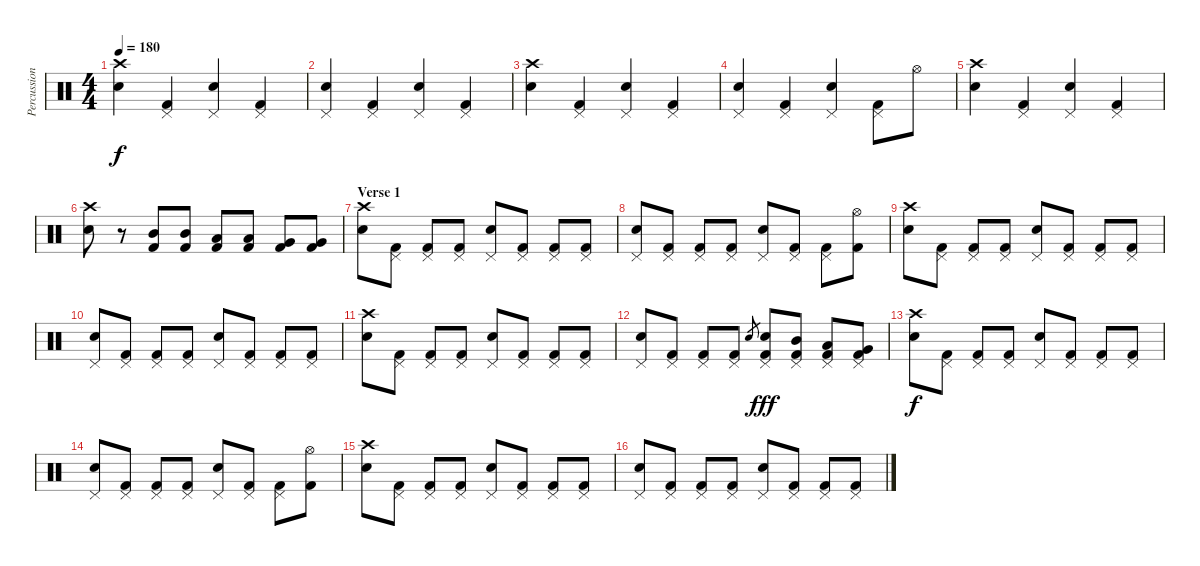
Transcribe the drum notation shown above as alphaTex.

\track ("Percussion" "Percussion") {instrument percussion}
\staff {score}
\articulation defaults
\ts (4 4)
\tempo 180
\clef neutral
\ks c
("Crash high (hit)" "Electric Snare (hit)").4{dy f} ("Pedal Hi-Hat (hit)" "Kick (hit) 2").4 ("Pedal Hi-Hat (hit)" "Electric Snare (hit)").4 ("Pedal Hi-Hat (hit)" "Kick (hit) 2").4 |
("Pedal Hi-Hat (hit)" "Electric Snare (hit)").4 ("Pedal Hi-Hat (hit)" "Kick (hit) 2").4 ("Pedal Hi-Hat (hit)" "Electric Snare (hit)").4 ("Pedal Hi-Hat (hit)" "Kick (hit) 2").4 |
("Crash high (hit)" "Electric Snare (hit)").4 ("Pedal Hi-Hat (hit)" "Kick (hit) 2").4 ("Pedal Hi-Hat (hit)" "Electric Snare (hit)").4 ("Pedal Hi-Hat (hit)" "Kick (hit) 2").4 |
("Pedal Hi-Hat (hit)" "Electric Snare (hit)").4 ("Pedal Hi-Hat (hit)" "Kick (hit) 2").4 ("Pedal Hi-Hat (hit)" "Electric Snare (hit)").4 ("Pedal Hi-Hat (hit)" "Kick (hit) 2").8 "Hi-Hat (open)".8 |
("Crash high (hit)" "Electric Snare (hit)").4 ("Pedal Hi-Hat (hit)" "Kick (hit) 2").4 ("Pedal Hi-Hat (hit)" "Electric Snare (hit)").4 ("Pedal Hi-Hat (hit)" "Kick (hit) 2").4 |
("Crash high (hit)" "Electric Snare (hit)").8 r.8 ("Mid Tom (hit)" "Kick (hit) 2").8 ("Mid Tom (hit)" "Kick (hit) 2").8 ("Low Tom (hit)" "Kick (hit) 2").8 ("Low Tom (hit)" "Kick (hit) 2").8 ("Very Low Tom (hit)" "Kick (hit) 2").8 ("Very Low Tom (hit)" "Kick (hit) 2").8 |
\section ("" "Verse 1")
("Crash high (hit)" "Electric Snare (hit)").8 ("Pedal Hi-Hat (hit)" "Kick (hit) 2").8 ("Pedal Hi-Hat (hit)" "Kick (hit) 2").8 ("Pedal Hi-Hat (hit)" "Kick (hit) 2").8 ("Pedal Hi-Hat (hit)" "Electric Snare (hit)").8 ("Pedal Hi-Hat (hit)" "Kick (hit) 2").8 ("Pedal Hi-Hat (hit)" "Kick (hit) 2").8 ("Pedal Hi-Hat (hit)" "Kick (hit) 2").8 |
("Pedal Hi-Hat (hit)" "Electric Snare (hit)").8 ("Pedal Hi-Hat (hit)" "Kick (hit) 2").8 ("Pedal Hi-Hat (hit)" "Kick (hit) 2").8 ("Pedal Hi-Hat (hit)" "Kick (hit) 2").8 ("Pedal Hi-Hat (hit)" "Electric Snare (hit)").8 ("Pedal Hi-Hat (hit)" "Kick (hit) 2").8 ("Pedal Hi-Hat (hit)" "Kick (hit) 2").8 ("Hi-Hat (open)" "Kick (hit) 2").8 |
("Crash high (hit)" "Electric Snare (hit)").8 ("Pedal Hi-Hat (hit)" "Kick (hit) 2").8 ("Pedal Hi-Hat (hit)" "Kick (hit) 2").8 ("Pedal Hi-Hat (hit)" "Kick (hit) 2").8 ("Pedal Hi-Hat (hit)" "Electric Snare (hit)").8 ("Pedal Hi-Hat (hit)" "Kick (hit) 2").8 ("Pedal Hi-Hat (hit)" "Kick (hit) 2").8 ("Pedal Hi-Hat (hit)" "Kick (hit) 2").8 |
("Pedal Hi-Hat (hit)" "Electric Snare (hit)").8 ("Pedal Hi-Hat (hit)" "Kick (hit) 2").8 ("Pedal Hi-Hat (hit)" "Kick (hit) 2").8 ("Pedal Hi-Hat (hit)" "Kick (hit) 2").8 ("Pedal Hi-Hat (hit)" "Electric Snare (hit)").8 ("Pedal Hi-Hat (hit)" "Kick (hit) 2").8 ("Pedal Hi-Hat (hit)" "Kick (hit) 2").8 ("Pedal Hi-Hat (hit)" "Kick (hit) 2").8 |
("Crash high (hit)" "Electric Snare (hit)").8 ("Pedal Hi-Hat (hit)" "Kick (hit) 2").8 ("Pedal Hi-Hat (hit)" "Kick (hit) 2").8 ("Pedal Hi-Hat (hit)" "Kick (hit) 2").8 ("Pedal Hi-Hat (hit)" "Electric Snare (hit)").8 ("Pedal Hi-Hat (hit)" "Kick (hit) 2").8 ("Pedal Hi-Hat (hit)" "Kick (hit) 2").8 ("Pedal Hi-Hat (hit)" "Kick (hit) 2").8 |
("Pedal Hi-Hat (hit)" "Electric Snare (hit)").8 ("Pedal Hi-Hat (hit)" "Kick (hit) 2").8 ("Pedal Hi-Hat (hit)" "Kick (hit) 2").8 ("Pedal Hi-Hat (hit)" "Kick (hit) 2").8 "Electric Snare (hit)".8{gr} ("Pedal Hi-Hat (hit)" "Electric Snare (hit)" "Kick (hit) 2").8{dy fff} ("Pedal Hi-Hat (hit)" "Mid Tom (hit)" "Kick (hit) 2").8 ("Pedal Hi-Hat (hit)" "Low Tom (hit)" "Kick (hit) 2").8 ("Pedal Hi-Hat (hit)" "Very Low Tom (hit)" "Kick (hit) 2").8 |
("Crash high (hit)" "Electric Snare (hit)").8{dy f} ("Pedal Hi-Hat (hit)" "Kick (hit) 2").8 ("Pedal Hi-Hat (hit)" "Kick (hit) 2").8 ("Pedal Hi-Hat (hit)" "Kick (hit) 2").8 ("Pedal Hi-Hat (hit)" "Electric Snare (hit)").8 ("Pedal Hi-Hat (hit)" "Kick (hit) 2").8 ("Pedal Hi-Hat (hit)" "Kick (hit) 2").8 ("Pedal Hi-Hat (hit)" "Kick (hit) 2").8 |
("Pedal Hi-Hat (hit)" "Electric Snare (hit)").8 ("Pedal Hi-Hat (hit)" "Kick (hit) 2").8 ("Pedal Hi-Hat (hit)" "Kick (hit) 2").8 ("Pedal Hi-Hat (hit)" "Kick (hit) 2").8 ("Pedal Hi-Hat (hit)" "Electric Snare (hit)").8 ("Pedal Hi-Hat (hit)" "Kick (hit) 2").8 ("Pedal Hi-Hat (hit)" "Kick (hit) 2").8 ("Hi-Hat (open)" "Kick (hit) 2").8 |
("Crash high (hit)" "Electric Snare (hit)").8 ("Pedal Hi-Hat (hit)" "Kick (hit) 2").8 ("Pedal Hi-Hat (hit)" "Kick (hit) 2").8 ("Pedal Hi-Hat (hit)" "Kick (hit) 2").8 ("Pedal Hi-Hat (hit)" "Electric Snare (hit)").8 ("Pedal Hi-Hat (hit)" "Kick (hit) 2").8 ("Pedal Hi-Hat (hit)" "Kick (hit) 2").8 ("Pedal Hi-Hat (hit)" "Kick (hit) 2").8 |
("Pedal Hi-Hat (hit)" "Electric Snare (hit)").8 ("Pedal Hi-Hat (hit)" "Kick (hit) 2").8 ("Pedal Hi-Hat (hit)" "Kick (hit) 2").8 ("Pedal Hi-Hat (hit)" "Kick (hit) 2").8 ("Pedal Hi-Hat (hit)" "Electric Snare (hit)").8 ("Pedal Hi-Hat (hit)" "Kick (hit) 2").8 ("Pedal Hi-Hat (hit)" "Kick (hit) 2").8 ("Pedal Hi-Hat (hit)" "Kick (hit) 2").8
